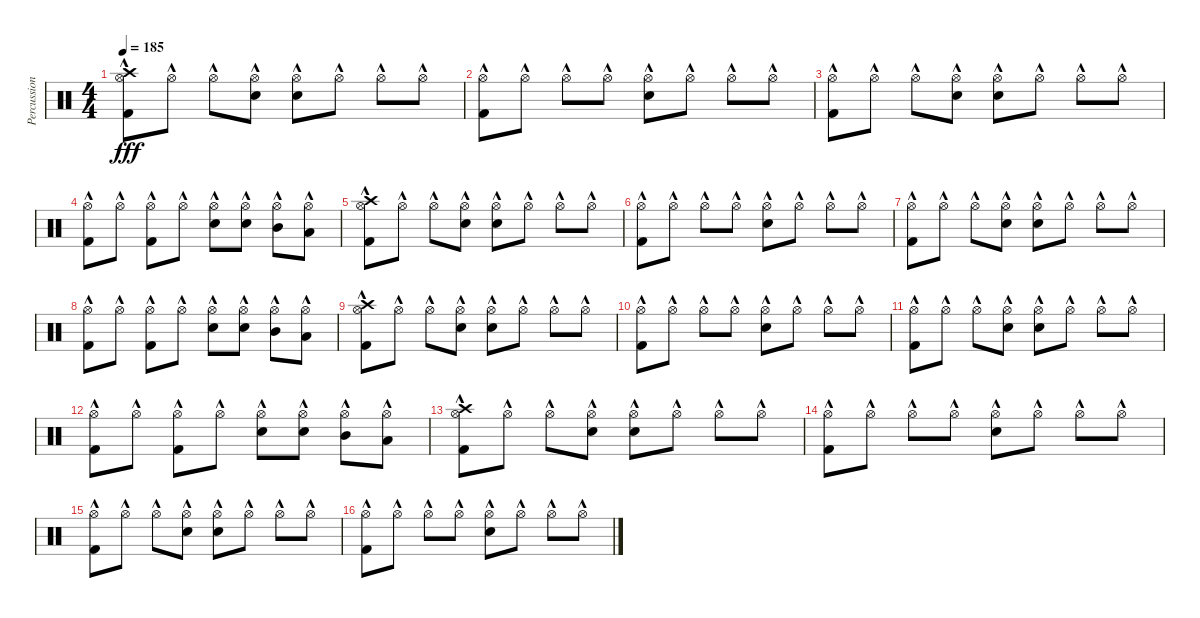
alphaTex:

\track ("Percussion" "Percussion") {instrument percussion}
\staff {score}
\articulation defaults
\ts (4 4)
\tempo 185
\clef neutral
\ks c
("Crash high (hit)"{hac} "Kick (hit) 2"{hac} "Hi-Hat (open)"{hac}).8{dy fff} "Hi-Hat (open)"{hac}.8 "Hi-Hat (open)"{hac}.8 ("Electric Snare (hit)"{hac} "Hi-Hat (open)"{hac}).8 ("Electric Snare (hit)"{hac} "Hi-Hat (open)"{hac}).8 "Hi-Hat (open)"{hac}.8 "Hi-Hat (open)"{hac}.8 "Hi-Hat (open)"{hac}.8 |
("Kick (hit) 2"{hac} "Hi-Hat (open)"{hac}).8 "Hi-Hat (open)"{hac}.8 "Hi-Hat (open)"{hac}.8 "Hi-Hat (open)"{hac}.8 ("Electric Snare (hit)"{hac} "Hi-Hat (open)"{hac}).8 "Hi-Hat (open)"{hac}.8 "Hi-Hat (open)"{hac}.8 "Hi-Hat (open)"{hac}.8 |
("Kick (hit) 2"{hac} "Hi-Hat (open)"{hac}).8 "Hi-Hat (open)"{hac}.8 "Hi-Hat (open)"{hac}.8 ("Electric Snare (hit)"{hac} "Hi-Hat (open)"{hac}).8 ("Electric Snare (hit)"{hac} "Hi-Hat (open)"{hac}).8 "Hi-Hat (open)"{hac}.8 "Hi-Hat (open)"{hac}.8 "Hi-Hat (open)"{hac}.8 |
("Kick (hit) 2"{hac} "Hi-Hat (open)"{hac}).8 "Hi-Hat (open)"{hac}.8 ("Kick (hit) 2"{hac} "Hi-Hat (open)"{hac}).8 "Hi-Hat (open)"{hac}.8 ("Electric Snare (hit)"{hac} "Hi-Hat (open)"{hac}).8 ("Electric Snare (hit)"{hac} "Hi-Hat (open)"{hac}).8 ("Mid Tom (hit)"{hac} "Hi-Hat (open)"{hac}).8 ("Low Floor Tom (hit)"{hac} "Hi-Hat (open)"{hac}).8 |
("Crash high (hit)"{hac} "Kick (hit) 2"{hac} "Hi-Hat (open)"{hac}).8 "Hi-Hat (open)"{hac}.8 "Hi-Hat (open)"{hac}.8 ("Electric Snare (hit)"{hac} "Hi-Hat (open)"{hac}).8 ("Electric Snare (hit)"{hac} "Hi-Hat (open)"{hac}).8 "Hi-Hat (open)"{hac}.8 "Hi-Hat (open)"{hac}.8 "Hi-Hat (open)"{hac}.8 |
("Kick (hit) 2"{hac} "Hi-Hat (open)"{hac}).8 "Hi-Hat (open)"{hac}.8 "Hi-Hat (open)"{hac}.8 "Hi-Hat (open)"{hac}.8 ("Electric Snare (hit)"{hac} "Hi-Hat (open)"{hac}).8 "Hi-Hat (open)"{hac}.8 "Hi-Hat (open)"{hac}.8 "Hi-Hat (open)"{hac}.8 |
("Kick (hit) 2"{hac} "Hi-Hat (open)"{hac}).8 "Hi-Hat (open)"{hac}.8 "Hi-Hat (open)"{hac}.8 ("Electric Snare (hit)"{hac} "Hi-Hat (open)"{hac}).8 ("Electric Snare (hit)"{hac} "Hi-Hat (open)"{hac}).8 "Hi-Hat (open)"{hac}.8 "Hi-Hat (open)"{hac}.8 "Hi-Hat (open)"{hac}.8 |
("Kick (hit) 2"{hac} "Hi-Hat (open)"{hac}).8 "Hi-Hat (open)"{hac}.8 ("Kick (hit) 2"{hac} "Hi-Hat (open)"{hac}).8 "Hi-Hat (open)"{hac}.8 ("Electric Snare (hit)"{hac} "Hi-Hat (open)"{hac}).8 ("Electric Snare (hit)"{hac} "Hi-Hat (open)"{hac}).8 ("Mid Tom (hit)"{hac} "Hi-Hat (open)"{hac}).8 ("Low Floor Tom (hit)"{hac} "Hi-Hat (open)"{hac}).8 |
("Crash high (hit)"{hac} "Kick (hit) 2"{hac} "Hi-Hat (open)"{hac}).8 "Hi-Hat (open)"{hac}.8 "Hi-Hat (open)"{hac}.8 ("Electric Snare (hit)"{hac} "Hi-Hat (open)"{hac}).8 ("Electric Snare (hit)"{hac} "Hi-Hat (open)"{hac}).8 "Hi-Hat (open)"{hac}.8 "Hi-Hat (open)"{hac}.8 "Hi-Hat (open)"{hac}.8 |
("Kick (hit) 2"{hac} "Hi-Hat (open)"{hac}).8 "Hi-Hat (open)"{hac}.8 "Hi-Hat (open)"{hac}.8 "Hi-Hat (open)"{hac}.8 ("Electric Snare (hit)"{hac} "Hi-Hat (open)"{hac}).8 "Hi-Hat (open)"{hac}.8 "Hi-Hat (open)"{hac}.8 "Hi-Hat (open)"{hac}.8 |
("Kick (hit) 2"{hac} "Hi-Hat (open)"{hac}).8 "Hi-Hat (open)"{hac}.8 "Hi-Hat (open)"{hac}.8 ("Electric Snare (hit)"{hac} "Hi-Hat (open)"{hac}).8 ("Electric Snare (hit)"{hac} "Hi-Hat (open)"{hac}).8 "Hi-Hat (open)"{hac}.8 "Hi-Hat (open)"{hac}.8 "Hi-Hat (open)"{hac}.8 |
("Kick (hit) 2"{hac} "Hi-Hat (open)"{hac}).8 "Hi-Hat (open)"{hac}.8 ("Kick (hit) 2"{hac} "Hi-Hat (open)"{hac}).8 "Hi-Hat (open)"{hac}.8 ("Electric Snare (hit)"{hac} "Hi-Hat (open)"{hac}).8 ("Electric Snare (hit)"{hac} "Hi-Hat (open)"{hac}).8 ("Mid Tom (hit)"{hac} "Hi-Hat (open)"{hac}).8 ("Low Floor Tom (hit)"{hac} "Hi-Hat (open)"{hac}).8 |
("Crash high (hit)"{hac} "Kick (hit) 2"{hac} "Hi-Hat (open)"{hac}).8 "Hi-Hat (open)"{hac}.8 "Hi-Hat (open)"{hac}.8 ("Electric Snare (hit)"{hac} "Hi-Hat (open)"{hac}).8 ("Electric Snare (hit)"{hac} "Hi-Hat (open)"{hac}).8 "Hi-Hat (open)"{hac}.8 "Hi-Hat (open)"{hac}.8 "Hi-Hat (open)"{hac}.8 |
("Kick (hit) 2"{hac} "Hi-Hat (open)"{hac}).8 "Hi-Hat (open)"{hac}.8 "Hi-Hat (open)"{hac}.8 "Hi-Hat (open)"{hac}.8 ("Electric Snare (hit)"{hac} "Hi-Hat (open)"{hac}).8 "Hi-Hat (open)"{hac}.8 "Hi-Hat (open)"{hac}.8 "Hi-Hat (open)"{hac}.8 |
("Kick (hit) 2"{hac} "Hi-Hat (open)"{hac}).8 "Hi-Hat (open)"{hac}.8 "Hi-Hat (open)"{hac}.8 ("Electric Snare (hit)"{hac} "Hi-Hat (open)"{hac}).8 ("Electric Snare (hit)"{hac} "Hi-Hat (open)"{hac}).8 "Hi-Hat (open)"{hac}.8 "Hi-Hat (open)"{hac}.8 "Hi-Hat (open)"{hac}.8 |
("Kick (hit) 2"{hac} "Hi-Hat (open)"{hac}).8 "Hi-Hat (open)"{hac}.8 "Hi-Hat (open)"{hac}.8 "Hi-Hat (open)"{hac}.8 ("Electric Snare (hit)"{hac} "Hi-Hat (open)"{hac}).8 "Hi-Hat (open)"{hac}.8 "Hi-Hat (open)"{hac}.8 "Hi-Hat (open)"{hac}.8
